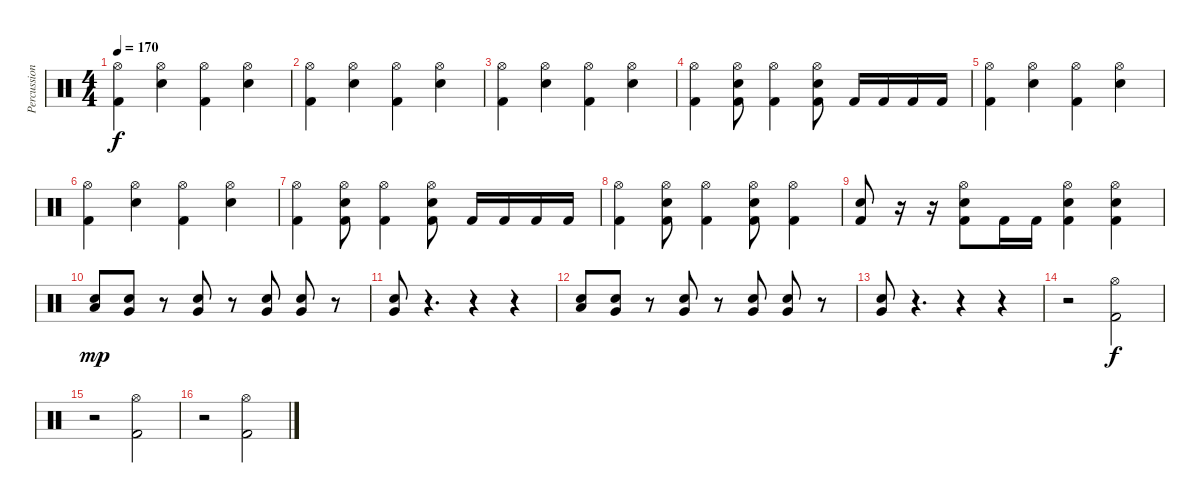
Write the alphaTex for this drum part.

\track ("Percussion" "Percussion") {instrument percussion}
\staff {score}
\articulation defaults
\ts (4 4)
\tempo 170
\clef neutral
\ks c
("Hi-Hat (open)" "Kick (hit) 2").4{dy f} ("Hi-Hat (open)" "Snare (hit) 2").4 ("Hi-Hat (open)" "Kick (hit) 2").4 ("Hi-Hat (open)" "Snare (hit) 2").4 |
("Hi-Hat (open)" "Kick (hit) 2").4 ("Hi-Hat (open)" "Snare (hit) 2").4 ("Hi-Hat (open)" "Kick (hit) 2").4 ("Hi-Hat (open)" "Snare (hit) 2").4 |
("Hi-Hat (open)" "Kick (hit) 2").4 ("Hi-Hat (open)" "Snare (hit) 2").4 ("Hi-Hat (open)" "Kick (hit) 2").4 ("Hi-Hat (open)" "Snare (hit) 2").4 |
("Kick (hit) 2" "Hi-Hat (open)").4 ("Hi-Hat (open)" "Snare (hit) 2" "Kick (hit) 2").8 ("Kick (hit) 2" "Hi-Hat (open)").4 ("Hi-Hat (open)" "Snare (hit) 2" "Kick (hit) 2").8 "Kick (hit) 2".16 "Kick (hit) 2".16 "Kick (hit) 2".16 "Kick (hit) 2".16 |
("Hi-Hat (open)" "Kick (hit) 2").4 ("Hi-Hat (open)" "Snare (hit) 2").4 ("Hi-Hat (open)" "Kick (hit) 2").4 ("Hi-Hat (open)" "Snare (hit) 2").4 |
("Hi-Hat (open)" "Kick (hit) 2").4 ("Hi-Hat (open)" "Snare (hit) 2").4 ("Hi-Hat (open)" "Kick (hit) 2").4 ("Hi-Hat (open)" "Snare (hit) 2").4 |
("Kick (hit) 2" "Hi-Hat (open)").4 ("Hi-Hat (open)" "Snare (hit) 2" "Kick (hit) 2").8 ("Kick (hit) 2" "Hi-Hat (open)").4 ("Hi-Hat (open)" "Snare (hit) 2" "Kick (hit) 2").8 "Kick (hit) 2".16 "Kick (hit) 2".16 "Kick (hit) 2".16 "Kick (hit) 2".16 |
("Kick (hit) 2" "Hi-Hat (open)").4 ("Hi-Hat (open)" "Snare (hit) 2" "Kick (hit) 2").8 ("Kick (hit) 2" "Hi-Hat (open)").4 ("Hi-Hat (open)" "Snare (hit) 2" "Kick (hit) 2").8 ("Kick (hit) 2" "Hi-Hat (open)").4 |
("Kick (hit) 2" "Snare (hit) 2").8 r.16 r.16 ("Kick (hit) 2" "Snare (hit) 2" "Hi-Hat (open)").8 "Kick (hit) 2".16 "Kick (hit) 2".16 ("Kick (hit) 2" "Snare (hit) 2" "Hi-Hat (open)").4 ("Kick (hit) 2" "Snare (hit) 2" "Hi-Hat (open)").4 |
("Low Tom (hit)" "Snare (hit) 2").8{dy mp} ("Very Low Tom (hit)" "Snare (hit) 2").8 r.8 ("Very Low Tom (hit)" "Snare (hit) 2").8 r.8 ("Very Low Tom (hit)" "Snare (hit) 2").8 ("Very Low Tom (hit)" "Snare (hit) 2").8 r.8 |
("Very Low Tom (hit)" "Snare (hit) 2").8 r.4{d} r.4 r.4 |
("Low Tom (hit)" "Snare (hit) 2").8 ("Very Low Tom (hit)" "Snare (hit) 2").8 r.8 ("Very Low Tom (hit)" "Snare (hit) 2").8 r.8 ("Very Low Tom (hit)" "Snare (hit) 2").8 ("Very Low Tom (hit)" "Snare (hit) 2").8 r.8 |
("Very Low Tom (hit)" "Snare (hit) 2").8 r.4{d} r.4 r.4 |
r.2 ("Kick (hit) 2" "Hi-Hat (open)").2{dy f} |
r.2 ("Kick (hit) 2" "Hi-Hat (open)").2 |
r.2 ("Kick (hit) 2" "Hi-Hat (open)").2
